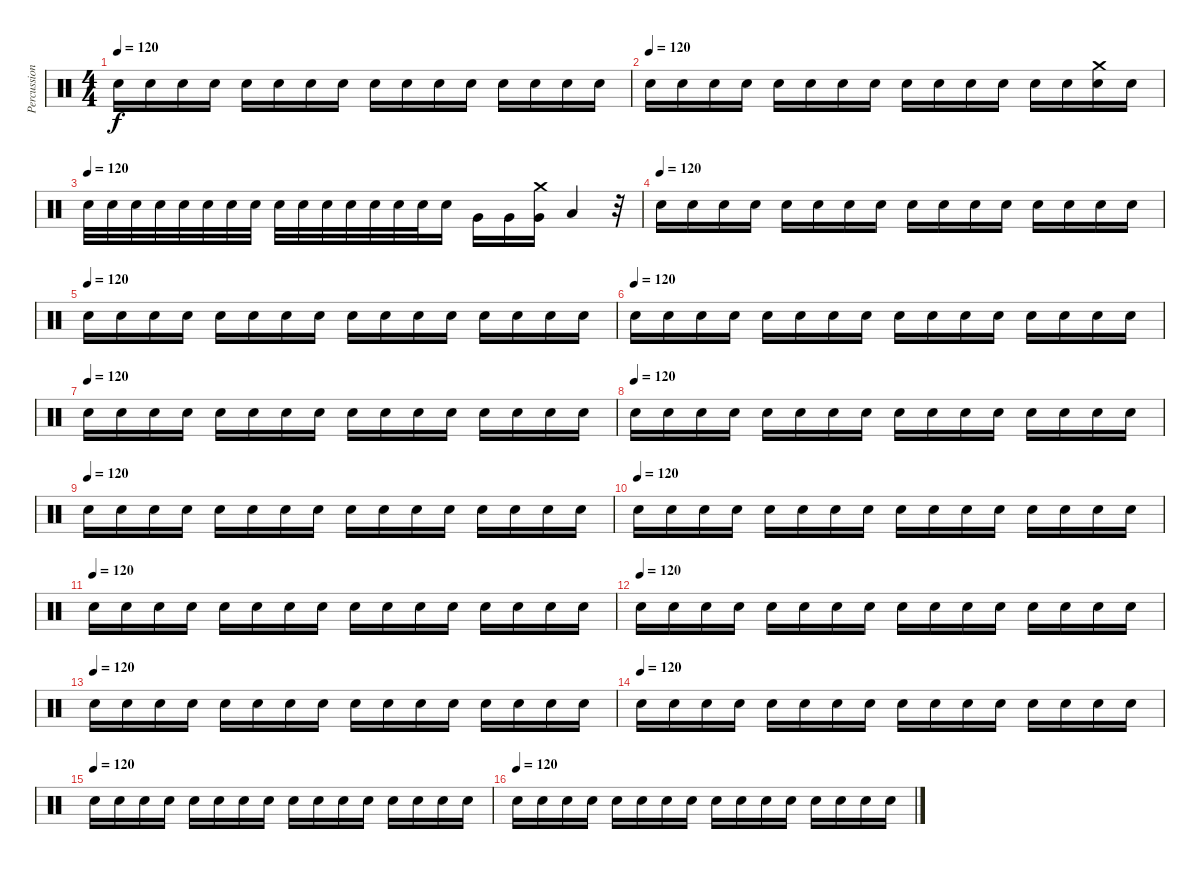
\track ("Percussion" "Percussion") {instrument percussion}
\staff {score}
\articulation defaults
\ts (4 4)
\tempo 120
\clef neutral
\ks c "Snare (hit) 2".16{dy f} "Electric Snare (hit)".16 "Snare (hit) 2".16 "Electric Snare (hit)".16 "Snare (hit) 2".16 "Electric Snare (hit)".16 "Snare (hit) 2".16 "Snare (hit) 2".16 "Electric Snare (hit)".16 "Snare (hit) 2".16 "Electric Snare (hit)".16 "Snare (hit) 2".16 "Electric Snare (hit)".16 "Snare (hit) 2".16 "Electric Snare (hit)".16 "Snare (hit) 2".16
|
\tempo (120)
"Snare (hit) 2".16 "Electric Snare (hit)".16 "Snare (hit) 2".16 "Electric Snare (hit)".16 "Snare (hit) 2".16 "Electric Snare (hit)".16 "Snare (hit) 2".16 "Snare (hit) 2".16 "Electric Snare (hit)".16 "Snare (hit) 2".16 "Electric Snare (hit)".16 "Snare (hit) 2".16 "Electric Snare (hit)".16 "Snare (hit) 2".16 ("Electric Snare (hit)" "Crash medium (hit)").16 "Snare (hit) 2".16 |
\tempo (120)
"Snare (hit) 2".32 "Snare (hit) 2".32 "Snare (hit) 2".32 "Snare (hit) 2".32 "Snare (hit) 2".32 "Snare (hit) 2".32 "Snare (hit) 2".32 "Snare (hit) 2".32 "Snare (hit) 2".32 "Snare (hit) 2".32 "Snare (hit) 2".32 "Snare (hit) 2".32 "Snare (hit) 2".32 "Snare (hit) 2".32 "Electric Snare (hit)".32 "Snare (hit) 2".16 "Very Low Tom (hit)".16 "Very Low Tom (hit)".16 ("Very Low Tom (hit)" "Crash medium (hit)").16 "Low Tom (hit)".4 r.32 |
\tempo (120)
"Snare (hit) 2".16 "Electric Snare (hit)".16 "Snare (hit) 2".16 "Electric Snare (hit)".16 "Snare (hit) 2".16 "Electric Snare (hit)".16 "Snare (hit) 2".16 "Snare (hit) 2".16 "Electric Snare (hit)".16 "Snare (hit) 2".16 "Electric Snare (hit)".16 "Snare (hit) 2".16 "Electric Snare (hit)".16 "Snare (hit) 2".16 "Electric Snare (hit)".16 "Snare (hit) 2".16 |
\tempo (120)
"Snare (hit) 2".16 "Electric Snare (hit)".16 "Snare (hit) 2".16 "Electric Snare (hit)".16 "Snare (hit) 2".16 "Electric Snare (hit)".16 "Snare (hit) 2".16 "Snare (hit) 2".16 "Electric Snare (hit)".16 "Snare (hit) 2".16 "Electric Snare (hit)".16 "Snare (hit) 2".16 "Electric Snare (hit)".16 "Snare (hit) 2".16 "Electric Snare (hit)".16 "Snare (hit) 2".16 |
\tempo (120)
"Snare (hit) 2".16 "Electric Snare (hit)".16 "Snare (hit) 2".16 "Electric Snare (hit)".16 "Snare (hit) 2".16 "Electric Snare (hit)".16 "Snare (hit) 2".16 "Snare (hit) 2".16 "Electric Snare (hit)".16 "Snare (hit) 2".16 "Electric Snare (hit)".16 "Snare (hit) 2".16 "Electric Snare (hit)".16 "Snare (hit) 2".16 "Electric Snare (hit)".16 "Snare (hit) 2".16 |
\tempo (120)
"Snare (hit) 2".16 "Electric Snare (hit)".16 "Snare (hit) 2".16 "Electric Snare (hit)".16 "Snare (hit) 2".16 "Electric Snare (hit)".16 "Snare (hit) 2".16 "Snare (hit) 2".16 "Electric Snare (hit)".16 "Snare (hit) 2".16 "Electric Snare (hit)".16 "Snare (hit) 2".16 "Electric Snare (hit)".16 "Snare (hit) 2".16 "Electric Snare (hit)".16 "Snare (hit) 2".16 |
\tempo (120)
"Snare (hit) 2".16 "Electric Snare (hit)".16 "Snare (hit) 2".16 "Electric Snare (hit)".16 "Snare (hit) 2".16 "Electric Snare (hit)".16 "Snare (hit) 2".16 "Snare (hit) 2".16 "Electric Snare (hit)".16 "Snare (hit) 2".16 "Electric Snare (hit)".16 "Snare (hit) 2".16 "Electric Snare (hit)".16 "Snare (hit) 2".16 "Electric Snare (hit)".16 "Snare (hit) 2".16 |
\tempo (120)
"Snare (hit) 2".16 "Electric Snare (hit)".16 "Snare (hit) 2".16 "Electric Snare (hit)".16 "Snare (hit) 2".16 "Electric Snare (hit)".16 "Snare (hit) 2".16 "Snare (hit) 2".16 "Electric Snare (hit)".16 "Snare (hit) 2".16 "Electric Snare (hit)".16 "Snare (hit) 2".16 "Electric Snare (hit)".16 "Snare (hit) 2".16 "Electric Snare (hit)".16 "Snare (hit) 2".16 |
\tempo (120)
"Snare (hit) 2".16 "Electric Snare (hit)".16 "Snare (hit) 2".16 "Electric Snare (hit)".16 "Snare (hit) 2".16 "Electric Snare (hit)".16 "Snare (hit) 2".16 "Snare (hit) 2".16 "Electric Snare (hit)".16 "Snare (hit) 2".16 "Electric Snare (hit)".16 "Snare (hit) 2".16 "Electric Snare (hit)".16 "Snare (hit) 2".16 "Electric Snare (hit)".16 "Snare (hit) 2".16 |
\tempo (120)
"Snare (hit) 2".16 "Electric Snare (hit)".16 "Snare (hit) 2".16 "Electric Snare (hit)".16 "Snare (hit) 2".16 "Electric Snare (hit)".16 "Snare (hit) 2".16 "Snare (hit) 2".16 "Electric Snare (hit)".16 "Snare (hit) 2".16 "Electric Snare (hit)".16 "Snare (hit) 2".16 "Electric Snare (hit)".16 "Snare (hit) 2".16 "Electric Snare (hit)".16 "Snare (hit) 2".16 |
\tempo (120)
"Snare (hit) 2".16 "Electric Snare (hit)".16 "Snare (hit) 2".16 "Electric Snare (hit)".16 "Snare (hit) 2".16 "Electric Snare (hit)".16 "Snare (hit) 2".16 "Snare (hit) 2".16 "Electric Snare (hit)".16 "Snare (hit) 2".16 "Electric Snare (hit)".16 "Snare (hit) 2".16 "Electric Snare (hit)".16 "Snare (hit) 2".16 "Electric Snare (hit)".16 "Snare (hit) 2".16 |
\tempo (120)
"Snare (hit) 2".16 "Electric Snare (hit)".16 "Snare (hit) 2".16 "Electric Snare (hit)".16 "Snare (hit) 2".16 "Electric Snare (hit)".16 "Snare (hit) 2".16 "Snare (hit) 2".16 "Electric Snare (hit)".16 "Snare (hit) 2".16 "Electric Snare (hit)".16 "Snare (hit) 2".16 "Electric Snare (hit)".16 "Snare (hit) 2".16 "Electric Snare (hit)".16 "Snare (hit) 2".16 |
\tempo (120)
"Snare (hit) 2".16 "Electric Snare (hit)".16 "Snare (hit) 2".16 "Electric Snare (hit)".16 "Snare (hit) 2".16 "Electric Snare (hit)".16 "Snare (hit) 2".16 "Snare (hit) 2".16 "Electric Snare (hit)".16 "Snare (hit) 2".16 "Electric Snare (hit)".16 "Snare (hit) 2".16 "Electric Snare (hit)".16 "Snare (hit) 2".16 "Electric Snare (hit)".16 "Snare (hit) 2".16 |
\tempo (120)
"Snare (hit) 2".16 "Electric Snare (hit)".16 "Snare (hit) 2".16 "Electric Snare (hit)".16 "Snare (hit) 2".16 "Electric Snare (hit)".16 "Snare (hit) 2".16 "Snare (hit) 2".16 "Electric Snare (hit)".16 "Snare (hit) 2".16 "Electric Snare (hit)".16 "Snare (hit) 2".16 "Electric Snare (hit)".16 "Snare (hit) 2".16 "Electric Snare (hit)".16 "Snare (hit) 2".16 |
\tempo (120)
"Snare (hit) 2".16 "Electric Snare (hit)".16 "Snare (hit) 2".16 "Electric Snare (hit)".16 "Snare (hit) 2".16 "Electric Snare (hit)".16 "Snare (hit) 2".16 "Snare (hit) 2".16 "Electric Snare (hit)".16 "Snare (hit) 2".16 "Electric Snare (hit)".16 "Snare (hit) 2".16 "Electric Snare (hit)".16 "Snare (hit) 2".16 "Electric Snare (hit)".16 "Snare (hit) 2".16
